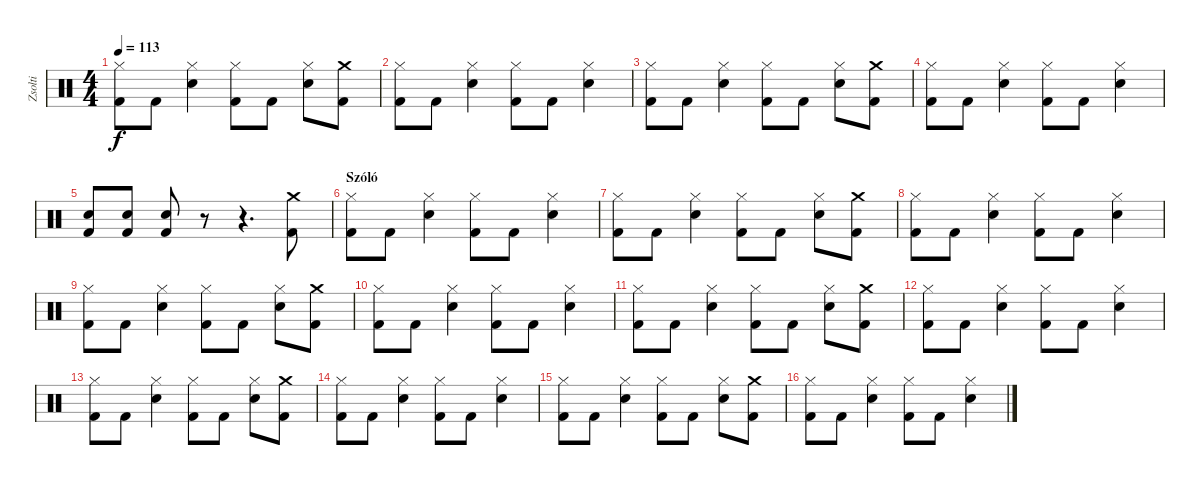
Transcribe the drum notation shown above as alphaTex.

\track ("Zsolti" "Zsolti") {instrument percussion}
\staff {score}
\articulation defaults
\ts (4 4)
\tempo 113
\clef neutral
\ks c
("Hi-Hat (closed)" "Kick (hit) 2").8{dy f} "Kick (hit) 2".8 ("Hi-Hat (closed)" "Snare (hit) 2").4 ("Hi-Hat (closed)" "Kick (hit) 2").8 "Kick (hit) 2".8 ("Hi-Hat (closed)" "Snare (hit) 2").8 ("Crash medium (hit)" "Kick (hit) 2").8 |
("Hi-Hat (closed)" "Kick (hit) 2").8 "Kick (hit) 2".8 ("Hi-Hat (closed)" "Snare (hit) 2").4 ("Hi-Hat (closed)" "Kick (hit) 2").8 "Kick (hit) 2".8 ("Hi-Hat (closed)" "Snare (hit) 2").4 |
("Hi-Hat (closed)" "Kick (hit) 2").8 "Kick (hit) 2".8 ("Hi-Hat (closed)" "Snare (hit) 2").4 ("Hi-Hat (closed)" "Kick (hit) 2").8 "Kick (hit) 2".8 ("Hi-Hat (closed)" "Snare (hit) 2").8 ("Crash medium (hit)" "Kick (hit) 2").8 |
("Hi-Hat (closed)" "Kick (hit) 2").8 "Kick (hit) 2".8 ("Hi-Hat (closed)" "Snare (hit) 2").4 ("Hi-Hat (closed)" "Kick (hit) 2").8 "Kick (hit) 2".8 ("Hi-Hat (closed)" "Snare (hit) 2").4 |
("Snare (hit) 2" "Kick (hit) 2").8 ("Snare (hit) 2" "Kick (hit) 2").8 ("Snare (hit) 2" "Kick (hit) 2").8 r.8 r.4{d} ("Crash medium (hit)" "Kick (hit) 2").8 |
\section ("" "Szóló")
("Hi-Hat (closed)" "Kick (hit) 2").8 "Kick (hit) 2".8 ("Hi-Hat (closed)" "Snare (hit) 2").4 ("Hi-Hat (closed)" "Kick (hit) 2").8 "Kick (hit) 2".8 ("Hi-Hat (closed)" "Snare (hit) 2").4 |
("Hi-Hat (closed)" "Kick (hit) 2").8 "Kick (hit) 2".8 ("Hi-Hat (closed)" "Snare (hit) 2").4 ("Hi-Hat (closed)" "Kick (hit) 2").8 "Kick (hit) 2".8 ("Hi-Hat (closed)" "Snare (hit) 2").8 ("Crash medium (hit)" "Kick (hit) 2").8 |
("Hi-Hat (closed)" "Kick (hit) 2").8 "Kick (hit) 2".8 ("Hi-Hat (closed)" "Snare (hit) 2").4 ("Hi-Hat (closed)" "Kick (hit) 2").8 "Kick (hit) 2".8 ("Hi-Hat (closed)" "Snare (hit) 2").4 |
("Hi-Hat (closed)" "Kick (hit) 2").8 "Kick (hit) 2".8 ("Hi-Hat (closed)" "Snare (hit) 2").4 ("Hi-Hat (closed)" "Kick (hit) 2").8 "Kick (hit) 2".8 ("Hi-Hat (closed)" "Snare (hit) 2").8 ("Crash medium (hit)" "Kick (hit) 2").8 |
("Hi-Hat (closed)" "Kick (hit) 2").8 "Kick (hit) 2".8 ("Hi-Hat (closed)" "Snare (hit) 2").4 ("Hi-Hat (closed)" "Kick (hit) 2").8 "Kick (hit) 2".8 ("Hi-Hat (closed)" "Snare (hit) 2").4 |
("Hi-Hat (closed)" "Kick (hit) 2").8 "Kick (hit) 2".8 ("Hi-Hat (closed)" "Snare (hit) 2").4 ("Hi-Hat (closed)" "Kick (hit) 2").8 "Kick (hit) 2".8 ("Hi-Hat (closed)" "Snare (hit) 2").8 ("Crash medium (hit)" "Kick (hit) 2").8 |
("Hi-Hat (closed)" "Kick (hit) 2").8 "Kick (hit) 2".8 ("Hi-Hat (closed)" "Snare (hit) 2").4 ("Hi-Hat (closed)" "Kick (hit) 2").8 "Kick (hit) 2".8 ("Hi-Hat (closed)" "Snare (hit) 2").4 |
("Hi-Hat (closed)" "Kick (hit) 2").8 "Kick (hit) 2".8 ("Hi-Hat (closed)" "Snare (hit) 2").4 ("Hi-Hat (closed)" "Kick (hit) 2").8 "Kick (hit) 2".8 ("Hi-Hat (closed)" "Snare (hit) 2").8 ("Crash medium (hit)" "Kick (hit) 2").8 |
("Hi-Hat (closed)" "Kick (hit) 2").8 "Kick (hit) 2".8 ("Hi-Hat (closed)" "Snare (hit) 2").4 ("Hi-Hat (closed)" "Kick (hit) 2").8 "Kick (hit) 2".8 ("Hi-Hat (closed)" "Snare (hit) 2").4 |
("Hi-Hat (closed)" "Kick (hit) 2").8 "Kick (hit) 2".8 ("Hi-Hat (closed)" "Snare (hit) 2").4 ("Hi-Hat (closed)" "Kick (hit) 2").8 "Kick (hit) 2".8 ("Hi-Hat (closed)" "Snare (hit) 2").8 ("Crash medium (hit)" "Kick (hit) 2").8 |
("Hi-Hat (closed)" "Kick (hit) 2").8 "Kick (hit) 2".8 ("Hi-Hat (closed)" "Snare (hit) 2").4 ("Hi-Hat (closed)" "Kick (hit) 2").8 "Kick (hit) 2".8 ("Hi-Hat (closed)" "Snare (hit) 2").4
